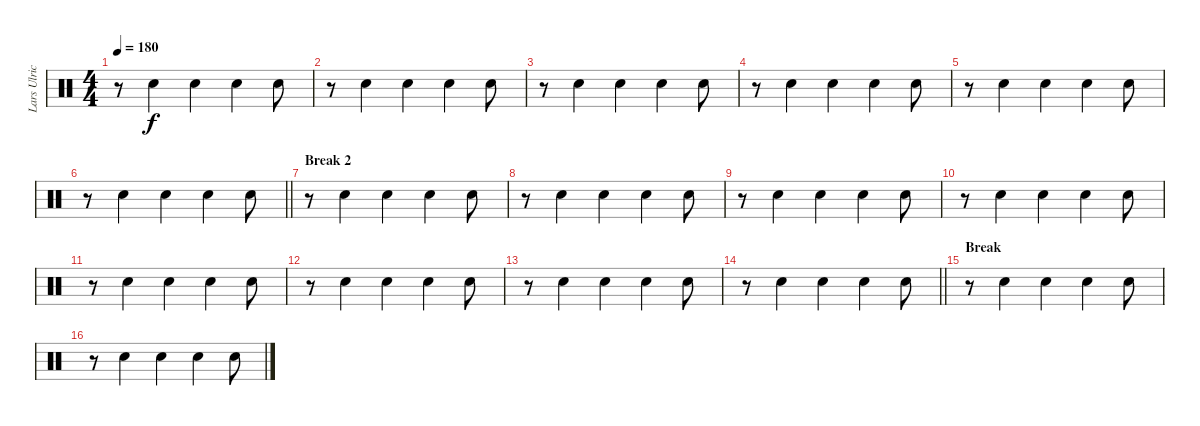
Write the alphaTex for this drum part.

\track ("Lars Ulrich" "Lars Ulric") {instrument percussion}
\staff {score}
\articulation defaults
\ts (4 4)
\tempo 180
\clef neutral
\ks c
r.8{dy f} "Snare (hit) 2".4 "Snare (hit) 2".4 "Snare (hit) 2".4 "Snare (hit) 2".8 |
r.8 "Snare (hit) 2".4 "Snare (hit) 2".4 "Snare (hit) 2".4 "Snare (hit) 2".8 |
r.8 "Snare (hit) 2".4 "Snare (hit) 2".4 "Snare (hit) 2".4 "Snare (hit) 2".8 |
r.8 "Snare (hit) 2".4 "Snare (hit) 2".4 "Snare (hit) 2".4 "Snare (hit) 2".8 |
r.8 "Snare (hit) 2".4 "Snare (hit) 2".4 "Snare (hit) 2".4 "Snare (hit) 2".8 |
\barLineRight lightlight
r.8 "Snare (hit) 2".4 "Snare (hit) 2".4 "Snare (hit) 2".4 "Snare (hit) 2".8 |
\section ("" "Break 2")
r.8 "Snare (hit) 2".4 "Snare (hit) 2".4 "Snare (hit) 2".4 "Snare (hit) 2".8 |
r.8 "Snare (hit) 2".4 "Snare (hit) 2".4 "Snare (hit) 2".4 "Snare (hit) 2".8 |
r.8 "Snare (hit) 2".4 "Snare (hit) 2".4 "Snare (hit) 2".4 "Snare (hit) 2".8 |
r.8 "Snare (hit) 2".4 "Snare (hit) 2".4 "Snare (hit) 2".4 "Snare (hit) 2".8 |
r.8 "Snare (hit) 2".4 "Snare (hit) 2".4 "Snare (hit) 2".4 "Snare (hit) 2".8 |
r.8 "Snare (hit) 2".4 "Snare (hit) 2".4 "Snare (hit) 2".4 "Snare (hit) 2".8 |
r.8 "Snare (hit) 2".4 "Snare (hit) 2".4 "Snare (hit) 2".4 "Snare (hit) 2".8 |
\barLineRight lightlight
r.8 "Snare (hit) 2".4 "Snare (hit) 2".4 "Snare (hit) 2".4 "Snare (hit) 2".8 |
\section ("" "Break")
r.8 "Snare (hit) 2".4 "Snare (hit) 2".4 "Snare (hit) 2".4 "Snare (hit) 2".8 |
r.8 "Snare (hit) 2".4 "Snare (hit) 2".4 "Snare (hit) 2".4 "Snare (hit) 2".8
